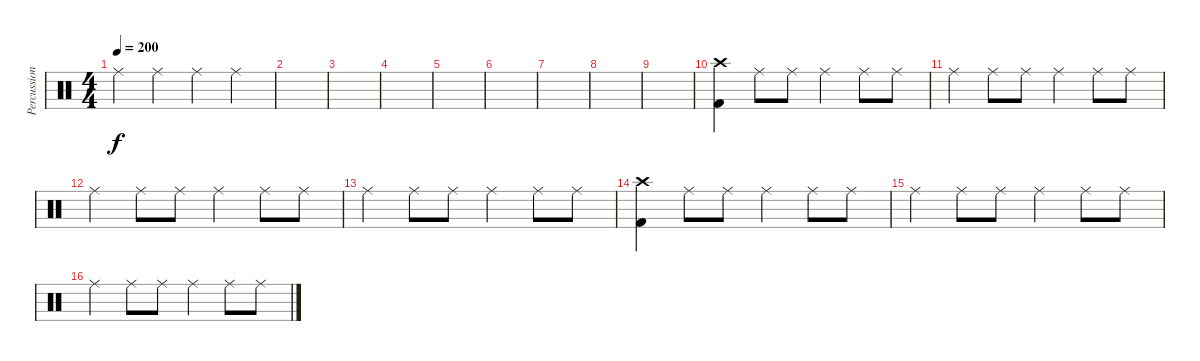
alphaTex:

\track ("Percussions" "Percussion") {instrument percussion}
\staff {score}
\articulation defaults
\ts (4 4)
\tempo 200
\clef neutral
\ks c "Ride (middle)".4{dy f} "Ride (middle)".4 "Ride (middle)".4 "Ride (middle)".4
|
|
|
|
|
|
|
|
|
("Crash high (hit)" "Kick (hit) 2").4 "Ride (middle)".8 "Ride (middle)".8 "Ride (middle)".4 "Ride (middle)".8 "Ride (middle)".8 |
"Ride (middle)".4 "Ride (middle)".8 "Ride (middle)".8 "Ride (middle)".4 "Ride (middle)".8 "Ride (middle)".8 |
"Ride (middle)".4 "Ride (middle)".8 "Ride (middle)".8 "Ride (middle)".4 "Ride (middle)".8 "Ride (middle)".8 |
"Ride (middle)".4 "Ride (middle)".8 "Ride (middle)".8 "Ride (middle)".4 "Ride (middle)".8 "Ride (middle)".8 |
("Crash high (hit)" "Kick (hit) 2").4 "Ride (middle)".8 "Ride (middle)".8 "Ride (middle)".4 "Ride (middle)".8 "Ride (middle)".8 |
"Ride (middle)".4 "Ride (middle)".8 "Ride (middle)".8 "Ride (middle)".4 "Ride (middle)".8 "Ride (middle)".8 |
"Ride (middle)".4 "Ride (middle)".8 "Ride (middle)".8 "Ride (middle)".4 "Ride (middle)".8 "Ride (middle)".8
